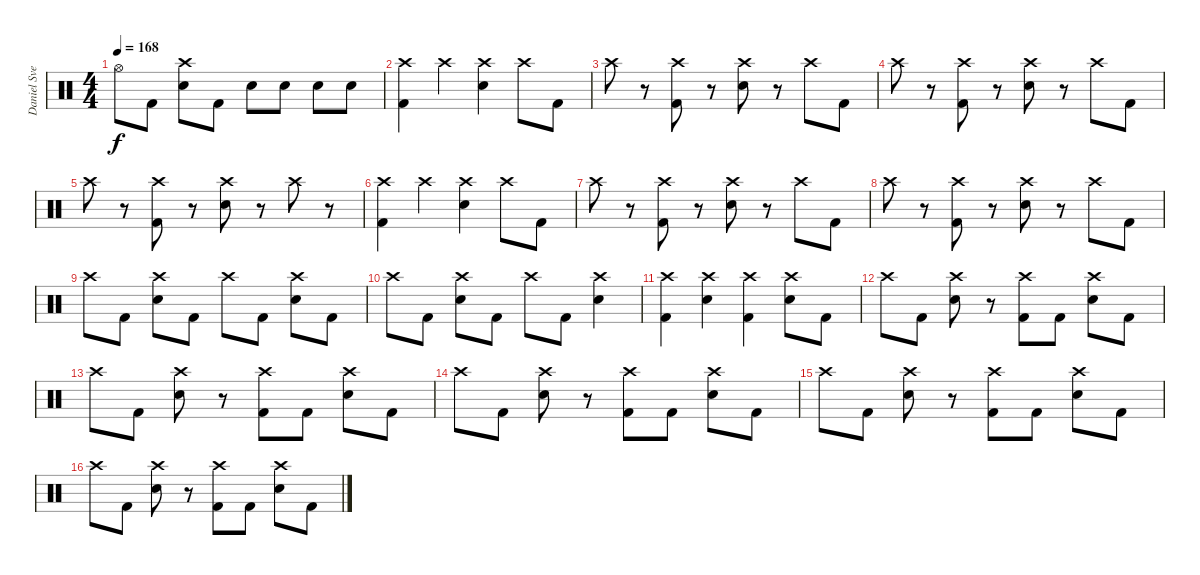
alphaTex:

\track ("Daniel Svensson" "Daniel Sve") {instrument percussion}
\staff {score}
\articulation defaults
\ts (4 4)
\tempo 168
\clef neutral
\ks c "Hi-Hat (open)".8{dy f} "Kick (hit) 2".8
("Crash high (hit)" "Electric Snare (hit)").8 "Kick (hit) 2".8 "Electric Snare (hit)".8 "Electric Snare (hit)".8 "Electric Snare (hit)".8 "Electric Snare (hit)".8 |
("Crash high (hit)" "Kick (hit) 2").4 "Crash high (hit)".4 ("Crash high (hit)" "Electric Snare (hit)").4 "Crash high (hit)".8 "Kick (hit) 2".8 |
"Crash high (hit)".8 r.8 ("Crash high (hit)" "Kick (hit) 2").8 r.8 ("Crash high (hit)" "Electric Snare (hit)").8 r.8 "Crash high (hit)".8 "Kick (hit) 2".8 |
"Crash high (hit)".8 r.8 ("Crash high (hit)" "Kick (hit) 2").8 r.8 ("Electric Snare (hit)" "Crash high (hit)").8 r.8 "Crash high (hit)".8 "Kick (hit) 2".8 |
"Crash high (hit)".8 r.8 ("Crash high (hit)" "Kick (hit) 2").8 r.8 ("Crash high (hit)" "Electric Snare (hit)").8 r.8 "Crash high (hit)".8 r.8 |
("Crash high (hit)" "Kick (hit) 2").4 "Crash high (hit)".4 ("Crash high (hit)" "Electric Snare (hit)").4 "Crash high (hit)".8 "Kick (hit) 2".8 |
"Crash high (hit)".8 r.8 ("Crash high (hit)" "Kick (hit) 2").8 r.8 ("Crash high (hit)" "Electric Snare (hit)").8 r.8 "Crash high (hit)".8 "Kick (hit) 2".8 |
"Crash high (hit)".8 r.8 ("Crash high (hit)" "Kick (hit) 2").8 r.8 ("Electric Snare (hit)" "Crash high (hit)").8 r.8 "Crash high (hit)".8 "Kick (hit) 2".8 |
"Crash high (hit)".8 "Kick (hit) 2".8 ("Crash high (hit)" "Electric Snare (hit)").8 "Kick (hit) 2".8 "Crash high (hit)".8 "Kick (hit) 2".8 ("Crash high (hit)" "Electric Snare (hit)").8 "Kick (hit) 2".8 |
"Crash high (hit)".8 "Kick (hit) 2".8 ("Crash high (hit)" "Electric Snare (hit)").8 "Kick (hit) 2".8 "Crash high (hit)".8 "Kick (hit) 2".8 ("Crash high (hit)" "Electric Snare (hit)").4 |
("Crash high (hit)" "Kick (hit) 2").4 ("Crash high (hit)" "Electric Snare (hit)").4 ("Crash high (hit)" "Kick (hit) 2").4 ("Crash high (hit)" "Electric Snare (hit)").8 "Kick (hit) 2".8 |
"Crash high (hit)".8 "Kick (hit) 2".8 ("Crash high (hit)" "Electric Snare (hit)").8 r.8 ("Crash high (hit)" "Kick (hit) 2").8 "Kick (hit) 2".8 ("Crash high (hit)" "Electric Snare (hit)").8 "Kick (hit) 2".8 |
"Crash high (hit)".8 "Kick (hit) 2".8 ("Crash high (hit)" "Electric Snare (hit)").8 r.8 ("Crash high (hit)" "Kick (hit) 2").8 "Kick (hit) 2".8 ("Crash high (hit)" "Electric Snare (hit)").8 "Kick (hit) 2".8 |
"Crash high (hit)".8 "Kick (hit) 2".8 ("Crash high (hit)" "Electric Snare (hit)").8 r.8 ("Crash high (hit)" "Kick (hit) 2").8 "Kick (hit) 2".8 ("Crash high (hit)" "Electric Snare (hit)").8 "Kick (hit) 2".8 |
"Crash high (hit)".8 "Kick (hit) 2".8 ("Crash high (hit)" "Electric Snare (hit)").8 r.8 ("Crash high (hit)" "Kick (hit) 2").8 "Kick (hit) 2".8 ("Crash high (hit)" "Electric Snare (hit)").8 "Kick (hit) 2".8 |
"Crash high (hit)".8 "Kick (hit) 2".8 ("Crash high (hit)" "Electric Snare (hit)").8 r.8 ("Crash high (hit)" "Kick (hit) 2").8 "Kick (hit) 2".8 ("Crash high (hit)" "Electric Snare (hit)").8 "Kick (hit) 2".8
